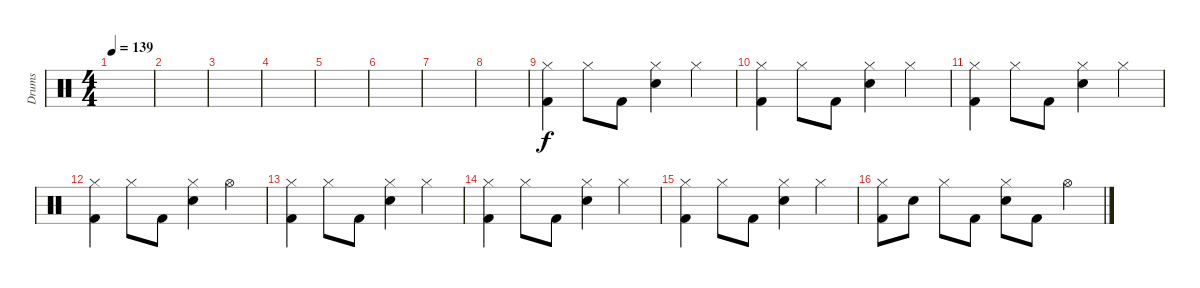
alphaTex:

\track ("Drums" "Drums") {instrument percussion}
\staff {score}
\articulation defaults
\ts (4 4)
\tempo 139
\clef neutral
\ks c
|
|
|
|
|
|
|
|
("Hi-Hat (closed)" "Kick (hit) 2").4 "Hi-Hat (closed)".8 "Kick (hit) 2".8 ("Hi-Hat (closed)" "Electric Snare (hit)").4 "Hi-Hat (closed)".4 |
("Hi-Hat (closed)" "Kick (hit) 2").4 "Hi-Hat (closed)".8 "Kick (hit) 2".8 ("Hi-Hat (closed)" "Electric Snare (hit)").4 "Hi-Hat (closed)".4 |
("Hi-Hat (closed)" "Kick (hit) 2").4 "Hi-Hat (closed)".8 "Kick (hit) 2".8 ("Hi-Hat (closed)" "Electric Snare (hit)").4 "Hi-Hat (closed)".4 |
("Hi-Hat (closed)" "Kick (hit) 2").4 "Hi-Hat (closed)".8 "Kick (hit) 2".8 ("Hi-Hat (closed)" "Electric Snare (hit)").4 "Hi-Hat (open)".4 |
("Hi-Hat (closed)" "Kick (hit) 2").4 "Hi-Hat (closed)".8 "Kick (hit) 2".8 ("Hi-Hat (closed)" "Electric Snare (hit)").4 "Hi-Hat (closed)".4 |
("Hi-Hat (closed)" "Kick (hit) 2").4 "Hi-Hat (closed)".8 "Kick (hit) 2".8 ("Hi-Hat (closed)" "Electric Snare (hit)").4 "Hi-Hat (closed)".4 |
("Hi-Hat (closed)" "Kick (hit) 2").4 "Hi-Hat (closed)".8 "Kick (hit) 2".8 ("Hi-Hat (closed)" "Electric Snare (hit)").4 "Hi-Hat (closed)".4 |
("Hi-Hat (closed)" "Kick (hit) 2").8 "Electric Snare (hit)".8 "Hi-Hat (closed)".8 "Kick (hit) 2".8 ("Hi-Hat (closed)" "Electric Snare (hit)").8 "Kick (hit) 2".8 "Hi-Hat (open)".4
